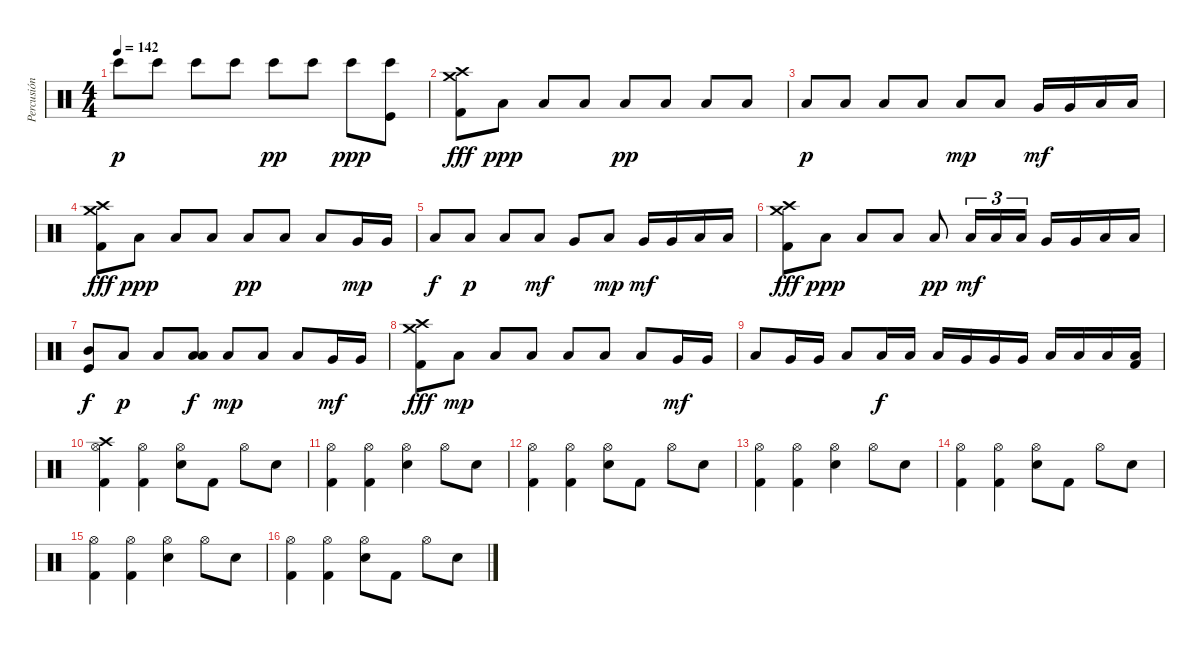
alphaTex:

\track ("Percusión" "Percusión") {instrument percussion}
\staff {score}
\articulation defaults
\ts (4 4)
\tempo 142
\clef neutral
\ks c "Bongo High (hit)".8{dy p balance 0} "Bongo High (hit)".8{balance 16} "Bongo High (hit)".8{balance 0} "Bongo High (hit)".8{balance 16} "Bongo High (hit)".8{dy pp balance 0} "Bongo High (hit)".8{balance 16} "Bongo High (hit)".8{dy ppp balance 0}
("Bongo High (hit)" "Kick (hit)").8{balance 8} |
("Crash medium (hit)" "Crash high (hit)" "Kick (hit) 2").8{dy fff balance 8} "Low Floor Tom (hit)".8{dy ppp} "Low Floor Tom (hit)".8 "Low Floor Tom (hit)".8 "Low Floor Tom (hit)".8{dy pp} "Low Floor Tom (hit)".8 "Low Floor Tom (hit)".8 "Low Floor Tom (hit)".8 |
"Low Floor Tom (hit)".8{dy p} "Low Floor Tom (hit)".8 "Low Floor Tom (hit)".8 "Low Floor Tom (hit)".8 "Low Floor Tom (hit)".8{dy mp} "Low Floor Tom (hit)".8 "Very Low Tom (hit)".16{dy mf} "Very Low Tom (hit)".16 "Low Floor Tom (hit)".16 "Low Floor Tom (hit)".16 |
("Crash medium (hit)" "Crash high (hit)" "Kick (hit) 2").8{dy fff} "Low Floor Tom (hit)".8{dy ppp} "Low Floor Tom (hit)".8 "Low Floor Tom (hit)".8 "Low Floor Tom (hit)".8{dy pp} "Low Floor Tom (hit)".8 "Low Floor Tom (hit)".8 "Very Low Tom (hit)".16{dy mp} "Very Low Tom (hit)".16 |
"Low Tom (hit)".8{dy f} "Low Floor Tom (hit)".8{dy p} "Low Floor Tom (hit)".8 "Low Tom (hit)".8{dy mf} "Very Low Tom (hit)".8 "Low Floor Tom (hit)".8{dy mp} "Very Low Tom (hit)".16{dy mf} "Very Low Tom (hit)".16 "Low Floor Tom (hit)".16 "Low Floor Tom (hit)".16 |
("Crash medium (hit)" "Crash high (hit)" "Kick (hit) 2").8{dy fff} "Low Floor Tom (hit)".8{dy ppp} "Low Floor Tom (hit)".8 "Low Floor Tom (hit)".8 "Low Floor Tom (hit)".8{dy pp} "Low Floor Tom (hit)".16{tu (3 2) dy mf} "Low Floor Tom (hit)".16{tu (3 2)} "Low Floor Tom (hit)".16{tu (3 2)} "Very Low Tom (hit)".16 "Very Low Tom (hit)".16 "Low Tom (hit)".16 "Low Tom (hit)".16 |
("Mid Tom (hit)" "Kick (hit)").8{dy f} "Low Floor Tom (hit)".8{dy p} "Low Floor Tom (hit)".8 ("Low Tom (hit)" "Low Floor Tom (hit)").8{dy f} "Low Floor Tom (hit)".8{dy mp} "Low Floor Tom (hit)".8 "Low Floor Tom (hit)".8 "Very Low Tom (hit)".16{dy mf} "Very Low Tom (hit)".16 |
("Crash medium (hit)" "Crash high (hit)" "Kick (hit) 2").8{dy fff} "Low Floor Tom (hit)".8{dy mp} "Low Floor Tom (hit)".8 "Low Floor Tom (hit)".8 "Low Floor Tom (hit)".8 "Low Floor Tom (hit)".8 "Low Floor Tom (hit)".8 "Very Low Tom (hit)".16{dy mf} "Very Low Tom (hit)".16 |
"Low Floor Tom (hit)".8 "Very Low Tom (hit)".16 "Very Low Tom (hit)".16 "Low Floor Tom (hit)".8 "Low Tom (hit)".16{dy f} "Low Tom (hit)".16 "Low Tom (hit)".16 "Very Low Tom (hit)".16 "Very Low Tom (hit)".16 "Very Low Tom (hit)".16 "Low Floor Tom (hit)".16 "Low Floor Tom (hit)".16 "Low Floor Tom (hit)".16 ("Low Floor Tom (hit)" "Kick (hit) 2").16 |
("Crash high (hit)" "Hi-Hat (open)" "Kick (hit) 2").4 ("Hi-Hat (open)" "Kick (hit) 2").4 ("Hi-Hat (open)" "Snare (hit) 2").8 "Kick (hit) 2".8 "Hi-Hat (open)".8 "Snare (hit) 2".8 |
("Hi-Hat (open)" "Kick (hit) 2").4 ("Hi-Hat (open)" "Kick (hit) 2").4 ("Hi-Hat (open)" "Snare (hit) 2").4 "Hi-Hat (open)".8 "Snare (hit) 2".8 |
("Hi-Hat (open)" "Kick (hit) 2").4 ("Hi-Hat (open)" "Kick (hit) 2").4 ("Hi-Hat (open)" "Snare (hit) 2").8 "Kick (hit) 2".8 "Hi-Hat (open)".8 "Snare (hit) 2".8 |
("Hi-Hat (open)" "Kick (hit) 2").4 ("Hi-Hat (open)" "Kick (hit) 2").4 ("Hi-Hat (open)" "Snare (hit) 2").4 "Hi-Hat (open)".8 "Snare (hit) 2".8 |
("Hi-Hat (open)" "Kick (hit) 2").4 ("Hi-Hat (open)" "Kick (hit) 2").4 ("Hi-Hat (open)" "Snare (hit) 2").8 "Kick (hit) 2".8 "Hi-Hat (open)".8 "Snare (hit) 2".8 |
("Hi-Hat (open)" "Kick (hit) 2").4 ("Hi-Hat (open)" "Kick (hit) 2").4 ("Hi-Hat (open)" "Snare (hit) 2").4 "Hi-Hat (open)".8 "Snare (hit) 2".8 |
("Hi-Hat (open)" "Kick (hit) 2").4 ("Hi-Hat (open)" "Kick (hit) 2").4 ("Hi-Hat (open)" "Snare (hit) 2").8 "Kick (hit) 2".8 "Hi-Hat (open)".8 "Snare (hit) 2".8
